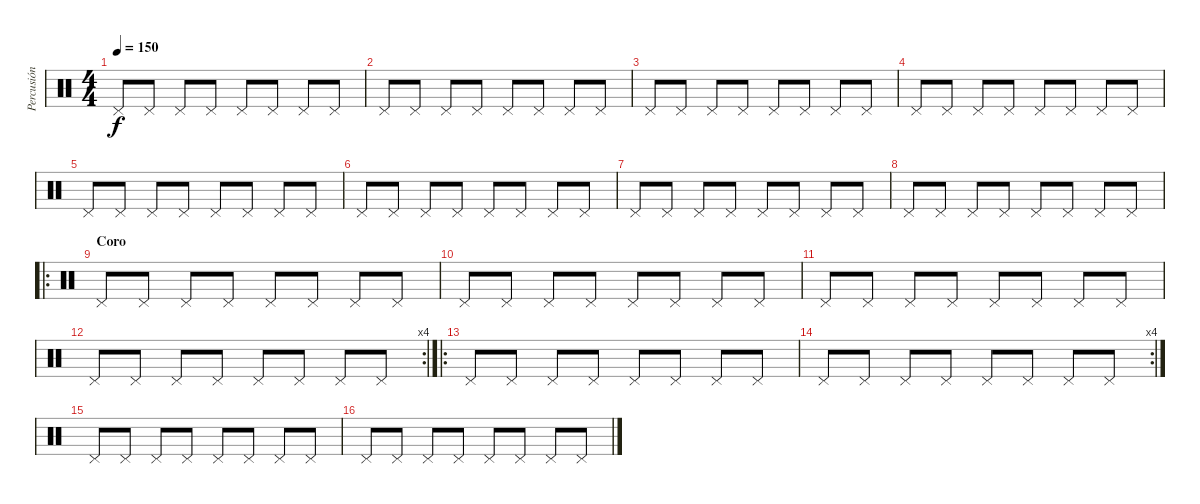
\track ("Percusión" "Percusión") {instrument percussion}
\staff {score}
\articulation defaults
\ts (4 4)
\tempo 150
\clef neutral
\ks c "Pedal Hi-Hat (hit)".8{dy f} "Pedal Hi-Hat (hit)".8 "Pedal Hi-Hat (hit)".8 "Pedal Hi-Hat (hit)".8 "Pedal Hi-Hat (hit)".8 "Pedal Hi-Hat (hit)".8 "Pedal Hi-Hat (hit)".8 "Pedal Hi-Hat (hit)".8
|
"Pedal Hi-Hat (hit)".8 "Pedal Hi-Hat (hit)".8 "Pedal Hi-Hat (hit)".8 "Pedal Hi-Hat (hit)".8 "Pedal Hi-Hat (hit)".8 "Pedal Hi-Hat (hit)".8 "Pedal Hi-Hat (hit)".8 "Pedal Hi-Hat (hit)".8 |
"Pedal Hi-Hat (hit)".8 "Pedal Hi-Hat (hit)".8 "Pedal Hi-Hat (hit)".8 "Pedal Hi-Hat (hit)".8 "Pedal Hi-Hat (hit)".8 "Pedal Hi-Hat (hit)".8 "Pedal Hi-Hat (hit)".8 "Pedal Hi-Hat (hit)".8 |
"Pedal Hi-Hat (hit)".8 "Pedal Hi-Hat (hit)".8 "Pedal Hi-Hat (hit)".8 "Pedal Hi-Hat (hit)".8 "Pedal Hi-Hat (hit)".8 "Pedal Hi-Hat (hit)".8 "Pedal Hi-Hat (hit)".8 "Pedal Hi-Hat (hit)".8 |
"Pedal Hi-Hat (hit)".8 "Pedal Hi-Hat (hit)".8 "Pedal Hi-Hat (hit)".8 "Pedal Hi-Hat (hit)".8 "Pedal Hi-Hat (hit)".8 "Pedal Hi-Hat (hit)".8 "Pedal Hi-Hat (hit)".8 "Pedal Hi-Hat (hit)".8 |
"Pedal Hi-Hat (hit)".8 "Pedal Hi-Hat (hit)".8 "Pedal Hi-Hat (hit)".8 "Pedal Hi-Hat (hit)".8 "Pedal Hi-Hat (hit)".8 "Pedal Hi-Hat (hit)".8 "Pedal Hi-Hat (hit)".8 "Pedal Hi-Hat (hit)".8 |
"Pedal Hi-Hat (hit)".8 "Pedal Hi-Hat (hit)".8 "Pedal Hi-Hat (hit)".8 "Pedal Hi-Hat (hit)".8 "Pedal Hi-Hat (hit)".8 "Pedal Hi-Hat (hit)".8 "Pedal Hi-Hat (hit)".8 "Pedal Hi-Hat (hit)".8 |
"Pedal Hi-Hat (hit)".8 "Pedal Hi-Hat (hit)".8 "Pedal Hi-Hat (hit)".8 "Pedal Hi-Hat (hit)".8 "Pedal Hi-Hat (hit)".8 "Pedal Hi-Hat (hit)".8 "Pedal Hi-Hat (hit)".8 "Pedal Hi-Hat (hit)".8 |
\ro
\section ("" "Coro")
"Pedal Hi-Hat (hit)".8 "Pedal Hi-Hat (hit)".8 "Pedal Hi-Hat (hit)".8 "Pedal Hi-Hat (hit)".8 "Pedal Hi-Hat (hit)".8 "Pedal Hi-Hat (hit)".8 "Pedal Hi-Hat (hit)".8 "Pedal Hi-Hat (hit)".8 |
"Pedal Hi-Hat (hit)".8 "Pedal Hi-Hat (hit)".8 "Pedal Hi-Hat (hit)".8 "Pedal Hi-Hat (hit)".8 "Pedal Hi-Hat (hit)".8 "Pedal Hi-Hat (hit)".8 "Pedal Hi-Hat (hit)".8 "Pedal Hi-Hat (hit)".8 |
"Pedal Hi-Hat (hit)".8 "Pedal Hi-Hat (hit)".8 "Pedal Hi-Hat (hit)".8 "Pedal Hi-Hat (hit)".8 "Pedal Hi-Hat (hit)".8 "Pedal Hi-Hat (hit)".8 "Pedal Hi-Hat (hit)".8 "Pedal Hi-Hat (hit)".8 |
\rc 4 "Pedal Hi-Hat (hit)".8 "Pedal Hi-Hat (hit)".8 "Pedal Hi-Hat (hit)".8 "Pedal Hi-Hat (hit)".8 "Pedal Hi-Hat (hit)".8 "Pedal Hi-Hat (hit)".8 "Pedal Hi-Hat (hit)".8 "Pedal Hi-Hat (hit)".8
|
\ro "Pedal Hi-Hat (hit)".8 "Pedal Hi-Hat (hit)".8 "Pedal Hi-Hat (hit)".8 "Pedal Hi-Hat (hit)".8 "Pedal Hi-Hat (hit)".8 "Pedal Hi-Hat (hit)".8 "Pedal Hi-Hat (hit)".8 "Pedal Hi-Hat (hit)".8
|
\rc 4 "Pedal Hi-Hat (hit)".8 "Pedal Hi-Hat (hit)".8 "Pedal Hi-Hat (hit)".8 "Pedal Hi-Hat (hit)".8 "Pedal Hi-Hat (hit)".8 "Pedal Hi-Hat (hit)".8 "Pedal Hi-Hat (hit)".8 "Pedal Hi-Hat (hit)".8
|
"Pedal Hi-Hat (hit)".8 "Pedal Hi-Hat (hit)".8 "Pedal Hi-Hat (hit)".8 "Pedal Hi-Hat (hit)".8 "Pedal Hi-Hat (hit)".8 "Pedal Hi-Hat (hit)".8 "Pedal Hi-Hat (hit)".8 "Pedal Hi-Hat (hit)".8 |
"Pedal Hi-Hat (hit)".8 "Pedal Hi-Hat (hit)".8 "Pedal Hi-Hat (hit)".8 "Pedal Hi-Hat (hit)".8 "Pedal Hi-Hat (hit)".8 "Pedal Hi-Hat (hit)".8 "Pedal Hi-Hat (hit)".8 "Pedal Hi-Hat (hit)".8
